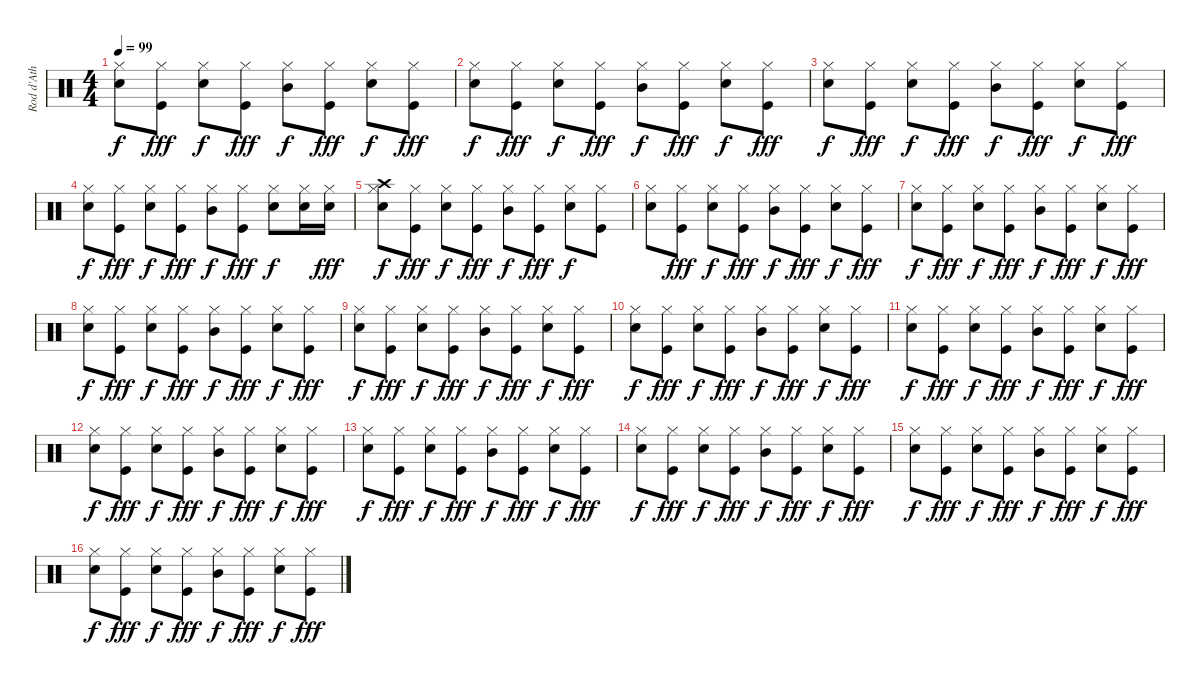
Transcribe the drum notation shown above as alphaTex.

\track ("Rod d'Ath" "Rod d'Ath") {instrument percussion}
\staff {score}
\articulation defaults
\ts (4 4)
\tempo 99
\clef neutral
\ks c
("Hi-Hat (closed)" "Snare (hit) 2").8{dy f} ("Hi-Hat (closed)" "Kick (hit)").8{dy fff} ("Hi-Hat (closed)" "Snare (hit) 2").8{dy f} ("Hi-Hat (closed)" "Kick (hit)").8{dy fff} ("Hi-Hat (closed)" "Mid Tom (hit)").8{dy f} ("Hi-Hat (closed)" "Kick (hit)").8{dy fff} ("Hi-Hat (closed)" "Snare (hit) 2").8{dy f} ("Hi-Hat (closed)" "Kick (hit)").8{dy fff} |
("Hi-Hat (closed)" "Snare (hit) 2").8{dy f} ("Hi-Hat (closed)" "Kick (hit)").8{dy fff} ("Hi-Hat (closed)" "Snare (hit) 2").8{dy f} ("Hi-Hat (closed)" "Kick (hit)").8{dy fff} ("Hi-Hat (closed)" "Mid Tom (hit)").8{dy f} ("Hi-Hat (closed)" "Kick (hit)").8{dy fff} ("Hi-Hat (closed)" "Snare (hit) 2").8{dy f} ("Hi-Hat (closed)" "Kick (hit)").8{dy fff} |
("Hi-Hat (closed)" "Snare (hit) 2").8{dy f} ("Hi-Hat (closed)" "Kick (hit)").8{dy fff} ("Hi-Hat (closed)" "Snare (hit) 2").8{dy f} ("Hi-Hat (closed)" "Kick (hit)").8{dy fff} ("Hi-Hat (closed)" "Mid Tom (hit)").8{dy f} ("Hi-Hat (closed)" "Kick (hit)").8{dy fff} ("Hi-Hat (closed)" "Snare (hit) 2").8{dy f} ("Hi-Hat (closed)" "Kick (hit)").8{dy fff} |
("Hi-Hat (closed)" "Snare (hit) 2").8{dy f} ("Hi-Hat (closed)" "Kick (hit)").8{dy fff} ("Hi-Hat (closed)" "Snare (hit) 2").8{dy f} ("Hi-Hat (closed)" "Kick (hit)").8{dy fff} ("Hi-Hat (closed)" "Mid Tom (hit)").8{dy f} ("Hi-Hat (closed)" "Kick (hit)").8{dy fff} ("Hi-Hat (closed)" "Snare (hit) 2").8{dy f} ("Hi-Hat (closed)" "Snare (hit) 2").16 ("Hi-Hat (closed)" "Snare (hit) 2").16{dy fff} |
("Hi-Hat (closed)" "Snare (hit) 2" "Crash high (hit)").8{dy f} ("Hi-Hat (closed)" "Kick (hit)").8{dy fff} ("Hi-Hat (closed)" "Snare (hit) 2").8{dy f} ("Hi-Hat (closed)" "Kick (hit)").8{dy fff} ("Hi-Hat (closed)" "Mid Tom (hit)").8{dy f} ("Hi-Hat (closed)" "Kick (hit)").8{dy fff} ("Hi-Hat (closed)" "Snare (hit) 2").8{dy f} ("Hi-Hat (closed)" "Kick (hit)").8 |
("Hi-Hat (closed)" "Snare (hit) 2").8 ("Hi-Hat (closed)" "Kick (hit)").8{dy fff} ("Hi-Hat (closed)" "Snare (hit) 2").8{dy f} ("Hi-Hat (closed)" "Kick (hit)").8{dy fff} ("Hi-Hat (closed)" "Mid Tom (hit)").8{dy f} ("Hi-Hat (closed)" "Kick (hit)").8{dy fff} ("Hi-Hat (closed)" "Snare (hit) 2").8{dy f} ("Hi-Hat (closed)" "Kick (hit)").8{dy fff} |
("Hi-Hat (closed)" "Snare (hit) 2").8{dy f} ("Hi-Hat (closed)" "Kick (hit)").8{dy fff} ("Hi-Hat (closed)" "Snare (hit) 2").8{dy f} ("Hi-Hat (closed)" "Kick (hit)").8{dy fff} ("Hi-Hat (closed)" "Mid Tom (hit)").8{dy f} ("Hi-Hat (closed)" "Kick (hit)").8{dy fff} ("Hi-Hat (closed)" "Snare (hit) 2").8{dy f} ("Hi-Hat (closed)" "Kick (hit)").8{dy fff} |
("Hi-Hat (closed)" "Snare (hit) 2").8{dy f} ("Hi-Hat (closed)" "Kick (hit)").8{dy fff} ("Hi-Hat (closed)" "Snare (hit) 2").8{dy f} ("Hi-Hat (closed)" "Kick (hit)").8{dy fff} ("Hi-Hat (closed)" "Mid Tom (hit)").8{dy f} ("Hi-Hat (closed)" "Kick (hit)").8{dy fff} ("Hi-Hat (closed)" "Snare (hit) 2").8{dy f} ("Hi-Hat (closed)" "Kick (hit)").8{dy fff} |
("Hi-Hat (closed)" "Snare (hit) 2").8{dy f} ("Hi-Hat (closed)" "Kick (hit)").8{dy fff} ("Hi-Hat (closed)" "Snare (hit) 2").8{dy f} ("Hi-Hat (closed)" "Kick (hit)").8{dy fff} ("Hi-Hat (closed)" "Mid Tom (hit)").8{dy f} ("Hi-Hat (closed)" "Kick (hit)").8{dy fff} ("Hi-Hat (closed)" "Snare (hit) 2").8{dy f} ("Hi-Hat (closed)" "Kick (hit)").8{dy fff} |
("Hi-Hat (closed)" "Snare (hit) 2").8{dy f} ("Hi-Hat (closed)" "Kick (hit)").8{dy fff} ("Hi-Hat (closed)" "Snare (hit) 2").8{dy f} ("Hi-Hat (closed)" "Kick (hit)").8{dy fff} ("Hi-Hat (closed)" "Mid Tom (hit)").8{dy f} ("Hi-Hat (closed)" "Kick (hit)").8{dy fff} ("Hi-Hat (closed)" "Snare (hit) 2").8{dy f} ("Hi-Hat (closed)" "Kick (hit)").8{dy fff} |
("Hi-Hat (closed)" "Snare (hit) 2").8{dy f} ("Hi-Hat (closed)" "Kick (hit)").8{dy fff} ("Hi-Hat (closed)" "Snare (hit) 2").8{dy f} ("Hi-Hat (closed)" "Kick (hit)").8{dy fff} ("Hi-Hat (closed)" "Mid Tom (hit)").8{dy f} ("Hi-Hat (closed)" "Kick (hit)").8{dy fff} ("Hi-Hat (closed)" "Snare (hit) 2").8{dy f} ("Hi-Hat (closed)" "Kick (hit)").8{dy fff} |
("Hi-Hat (closed)" "Snare (hit) 2").8{dy f} ("Hi-Hat (closed)" "Kick (hit)").8{dy fff} ("Hi-Hat (closed)" "Snare (hit) 2").8{dy f} ("Hi-Hat (closed)" "Kick (hit)").8{dy fff} ("Hi-Hat (closed)" "Mid Tom (hit)").8{dy f} ("Hi-Hat (closed)" "Kick (hit)").8{dy fff} ("Hi-Hat (closed)" "Snare (hit) 2").8{dy f} ("Hi-Hat (closed)" "Kick (hit)").8{dy fff} |
("Hi-Hat (closed)" "Snare (hit) 2").8{dy f} ("Hi-Hat (closed)" "Kick (hit)").8{dy fff} ("Hi-Hat (closed)" "Snare (hit) 2").8{dy f} ("Hi-Hat (closed)" "Kick (hit)").8{dy fff} ("Hi-Hat (closed)" "Mid Tom (hit)").8{dy f} ("Hi-Hat (closed)" "Kick (hit)").8{dy fff} ("Hi-Hat (closed)" "Snare (hit) 2").8{dy f} ("Hi-Hat (closed)" "Kick (hit)").8{dy fff} |
("Hi-Hat (closed)" "Snare (hit) 2").8{dy f} ("Hi-Hat (closed)" "Kick (hit)").8{dy fff} ("Hi-Hat (closed)" "Snare (hit) 2").8{dy f} ("Hi-Hat (closed)" "Kick (hit)").8{dy fff} ("Hi-Hat (closed)" "Mid Tom (hit)").8{dy f} ("Hi-Hat (closed)" "Kick (hit)").8{dy fff} ("Hi-Hat (closed)" "Snare (hit) 2").8{dy f} ("Hi-Hat (closed)" "Kick (hit)").8{dy fff} |
("Hi-Hat (closed)" "Snare (hit) 2").8{dy f} ("Hi-Hat (closed)" "Kick (hit)").8{dy fff} ("Hi-Hat (closed)" "Snare (hit) 2").8{dy f} ("Hi-Hat (closed)" "Kick (hit)").8{dy fff} ("Hi-Hat (closed)" "Mid Tom (hit)").8{dy f} ("Hi-Hat (closed)" "Kick (hit)").8{dy fff} ("Hi-Hat (closed)" "Snare (hit) 2").8{dy f} ("Hi-Hat (closed)" "Kick (hit)").8{dy fff} |
("Hi-Hat (closed)" "Snare (hit) 2").8{dy f} ("Hi-Hat (closed)" "Kick (hit)").8{dy fff} ("Hi-Hat (closed)" "Snare (hit) 2").8{dy f} ("Hi-Hat (closed)" "Kick (hit)").8{dy fff} ("Hi-Hat (closed)" "Mid Tom (hit)").8{dy f} ("Hi-Hat (closed)" "Kick (hit)").8{dy fff} ("Hi-Hat (closed)" "Snare (hit) 2").8{dy f} ("Hi-Hat (closed)" "Kick (hit)").8{dy fff}
